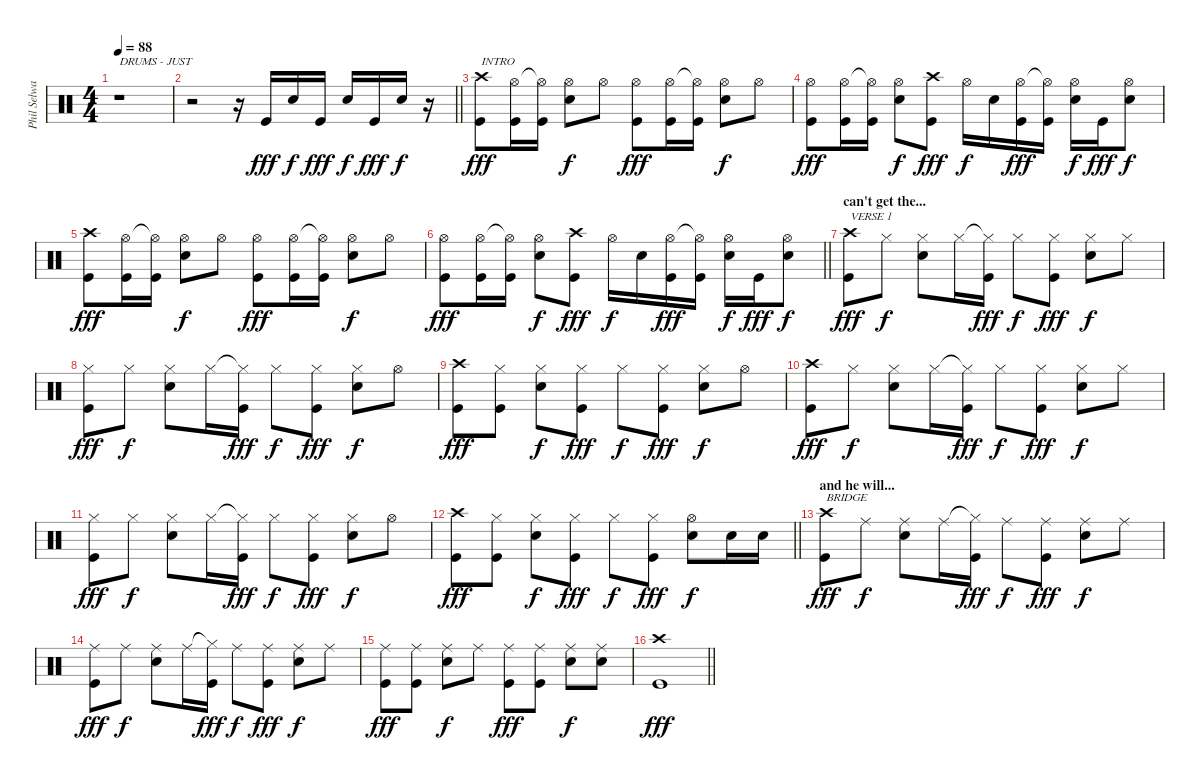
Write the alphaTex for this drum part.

\track ("Phil Selway" "Phil Selwa") {instrument percussion}
\staff {score}
\articulation defaults
\ts (4 4)
\tempo 88
\clef neutral
\ks c
r.1{txt "DRUMS - JUST" dy fff} |
\barLineRight lightlight
r.2 r.16 "Kick (hit)".16 "Snare (hit) 2".16{dy f} "Kick (hit)".16{dy fff} "Snare (hit) 2".16{dy f} "Kick (hit)".16{dy fff} "Snare (hit) 2".16{dy f} r.16 |
("Crash high (hit)" "Kick (hit)").8{txt "INTRO" dy fff} ("Hi-Hat (open)" "Kick (hit)").16 ("Hi-Hat (open)"{t} "Kick (hit)").16 ("Hi-Hat (open)" "Snare (hit) 2").8{dy f} "Hi-Hat (open)".8 ("Hi-Hat (open)" "Kick (hit)").8{dy fff} ("Hi-Hat (open)" "Kick (hit)").16 ("Hi-Hat (open)"{t} "Kick (hit)").16 ("Hi-Hat (open)" "Snare (hit) 2").8{dy f} "Hi-Hat (open)".8 |
("Hi-Hat (open)" "Kick (hit)").8{dy fff} ("Hi-Hat (open)" "Kick (hit)").16 ("Hi-Hat (open)"{t} "Kick (hit)").16 ("Hi-Hat (open)" "Snare (hit) 2").8{dy f} ("Crash high (hit)" "Kick (hit)").8{dy fff} "Hi-Hat (open)".16{dy f} "Snare (hit) 2".16 ("Hi-Hat (open)" "Kick (hit)").16{dy fff} ("Hi-Hat (open)"{t} "Kick (hit)").16 ("Hi-Hat (open)" "Snare (hit) 2").16{dy f} "Kick (hit)".16{dy fff} ("Hi-Hat (open)" "Snare (hit) 2").8{dy f} |
("Crash high (hit)" "Kick (hit)").8{dy fff} ("Hi-Hat (open)" "Kick (hit)").16 ("Hi-Hat (open)"{t} "Kick (hit)").16 ("Hi-Hat (open)" "Snare (hit) 2").8{dy f} "Hi-Hat (open)".8 ("Hi-Hat (open)" "Kick (hit)").8{dy fff} ("Hi-Hat (open)" "Kick (hit)").16 ("Hi-Hat (open)"{t} "Kick (hit)").16 ("Hi-Hat (open)" "Snare (hit) 2").8{dy f} "Hi-Hat (open)".8 |
\barLineRight lightlight
("Hi-Hat (open)" "Kick (hit)").8{dy fff} ("Hi-Hat (open)" "Kick (hit)").16 ("Hi-Hat (open)"{t} "Kick (hit)").16 ("Hi-Hat (open)" "Snare (hit) 2").8{dy f} ("Crash high (hit)" "Kick (hit)").8{dy fff} "Hi-Hat (open)".16{dy f} "Snare (hit) 2".16 ("Hi-Hat (open)" "Kick (hit)").16{dy fff} ("Hi-Hat (open)"{t} "Kick (hit)").16 ("Hi-Hat (open)" "Snare (hit) 2").16{dy f} "Kick (hit)".16{dy fff} ("Hi-Hat (open)" "Snare (hit) 2").8{dy f} |
\section ("" "can't get the...")
("Crash high (hit)" "Kick (hit)").8{txt "VERSE 1" dy fff} "Hi-Hat (closed)".8{dy f} ("Hi-Hat (closed)" "Snare (hit) 2").8 "Hi-Hat (closed)".16 ("Hi-Hat (closed)"{t} "Kick (hit)").16{dy fff} "Hi-Hat (closed)".8{dy f} ("Hi-Hat (closed)" "Kick (hit)").8{dy fff} ("Hi-Hat (closed)" "Snare (hit) 2").8{dy f} "Hi-Hat (closed)".8 |
("Hi-Hat (closed)" "Kick (hit)").8{dy fff} "Hi-Hat (closed)".8{dy f} ("Hi-Hat (closed)" "Snare (hit) 2").8 "Hi-Hat (closed)".16 ("Hi-Hat (closed)"{t} "Kick (hit)").16{dy fff} "Hi-Hat (closed)".8{dy f} ("Hi-Hat (closed)" "Kick (hit)").8{dy fff} ("Hi-Hat (closed)" "Snare (hit) 2").8{dy f} "Hi-Hat (open)".8 |
("Crash high (hit)" "Kick (hit)").8{dy fff} ("Hi-Hat (closed)" "Kick (hit)").8 ("Hi-Hat (closed)" "Snare (hit) 2").8{dy f} ("Hi-Hat (closed)" "Kick (hit)").8{dy fff} "Hi-Hat (closed)".8{dy f} ("Hi-Hat (closed)" "Kick (hit)").8{dy fff} ("Hi-Hat (closed)" "Snare (hit) 2").8{dy f} "Hi-Hat (open)".8 |
("Crash high (hit)" "Kick (hit)").8{dy fff} "Hi-Hat (closed)".8{dy f} ("Hi-Hat (closed)" "Snare (hit) 2").8 "Hi-Hat (closed)".16 ("Hi-Hat (closed)"{t} "Kick (hit)").16{dy fff} "Hi-Hat (closed)".8{dy f} ("Hi-Hat (closed)" "Kick (hit)").8{dy fff} ("Hi-Hat (closed)" "Snare (hit) 2").8{dy f} "Hi-Hat (closed)".8 |
("Hi-Hat (closed)" "Kick (hit)").8{dy fff} "Hi-Hat (closed)".8{dy f} ("Hi-Hat (closed)" "Snare (hit) 2").8 "Hi-Hat (closed)".16 ("Hi-Hat (closed)"{t} "Kick (hit)").16{dy fff} "Hi-Hat (closed)".8{dy f} ("Hi-Hat (closed)" "Kick (hit)").8{dy fff} ("Hi-Hat (closed)" "Snare (hit) 2").8{dy f} "Hi-Hat (open)".8 |
\barLineRight lightlight
("Crash high (hit)" "Kick (hit)").8{dy fff} ("Hi-Hat (closed)" "Kick (hit)").8 ("Hi-Hat (closed)" "Snare (hit) 2").8{dy f} ("Hi-Hat (closed)" "Kick (hit)").8{dy fff} "Hi-Hat (closed)".8{dy f} ("Hi-Hat (closed)" "Kick (hit)").8{dy fff} ("Hi-Hat (open)" "Snare (hit) 2").8{dy f} "Snare (hit) 2".16 "Snare (hit) 2".16 |
\section ("" "and he will...")
("Crash high (hit)" "Kick (hit)").8{txt "BRIDGE" dy fff} "Ride (middle)".8{dy f} ("Ride (middle)" "Snare (hit) 2").8 "Ride (middle)".16 ("Hi-Hat (closed)"{t} "Kick (hit)").16{dy fff} "Ride (middle)".8{dy f} ("Ride (middle)" "Kick (hit)").8{dy fff} ("Ride (middle)" "Snare (hit) 2").8{dy f} "Ride (middle)".8 |
("Ride (middle)" "Kick (hit)").8{dy fff} "Ride (middle)".8{dy f} ("Ride (middle)" "Snare (hit) 2").8 "Ride (middle)".16 ("Hi-Hat (closed)"{t} "Kick (hit)").16{dy fff} "Ride (middle)".8{dy f} ("Ride (middle)" "Kick (hit)").8{dy fff} ("Ride (middle)" "Snare (hit) 2").8{dy f} "Ride (middle)".8 |
("Ride (middle)" "Kick (hit)").8{dy fff} ("Ride (middle)" "Kick (hit)").8 ("Ride (middle)" "Snare (hit) 2").8{dy f} "Ride (middle)".8 ("Ride (middle)" "Kick (hit)").8{dy fff} ("Ride (middle)" "Kick (hit)").8 ("Ride (middle)" "Snare (hit) 2").8{dy f} ("Ride (middle)" "Snare (hit) 2").8 |
\barLineRight lightlight
("Crash high (hit)" "Kick (hit)").1{dy fff}
